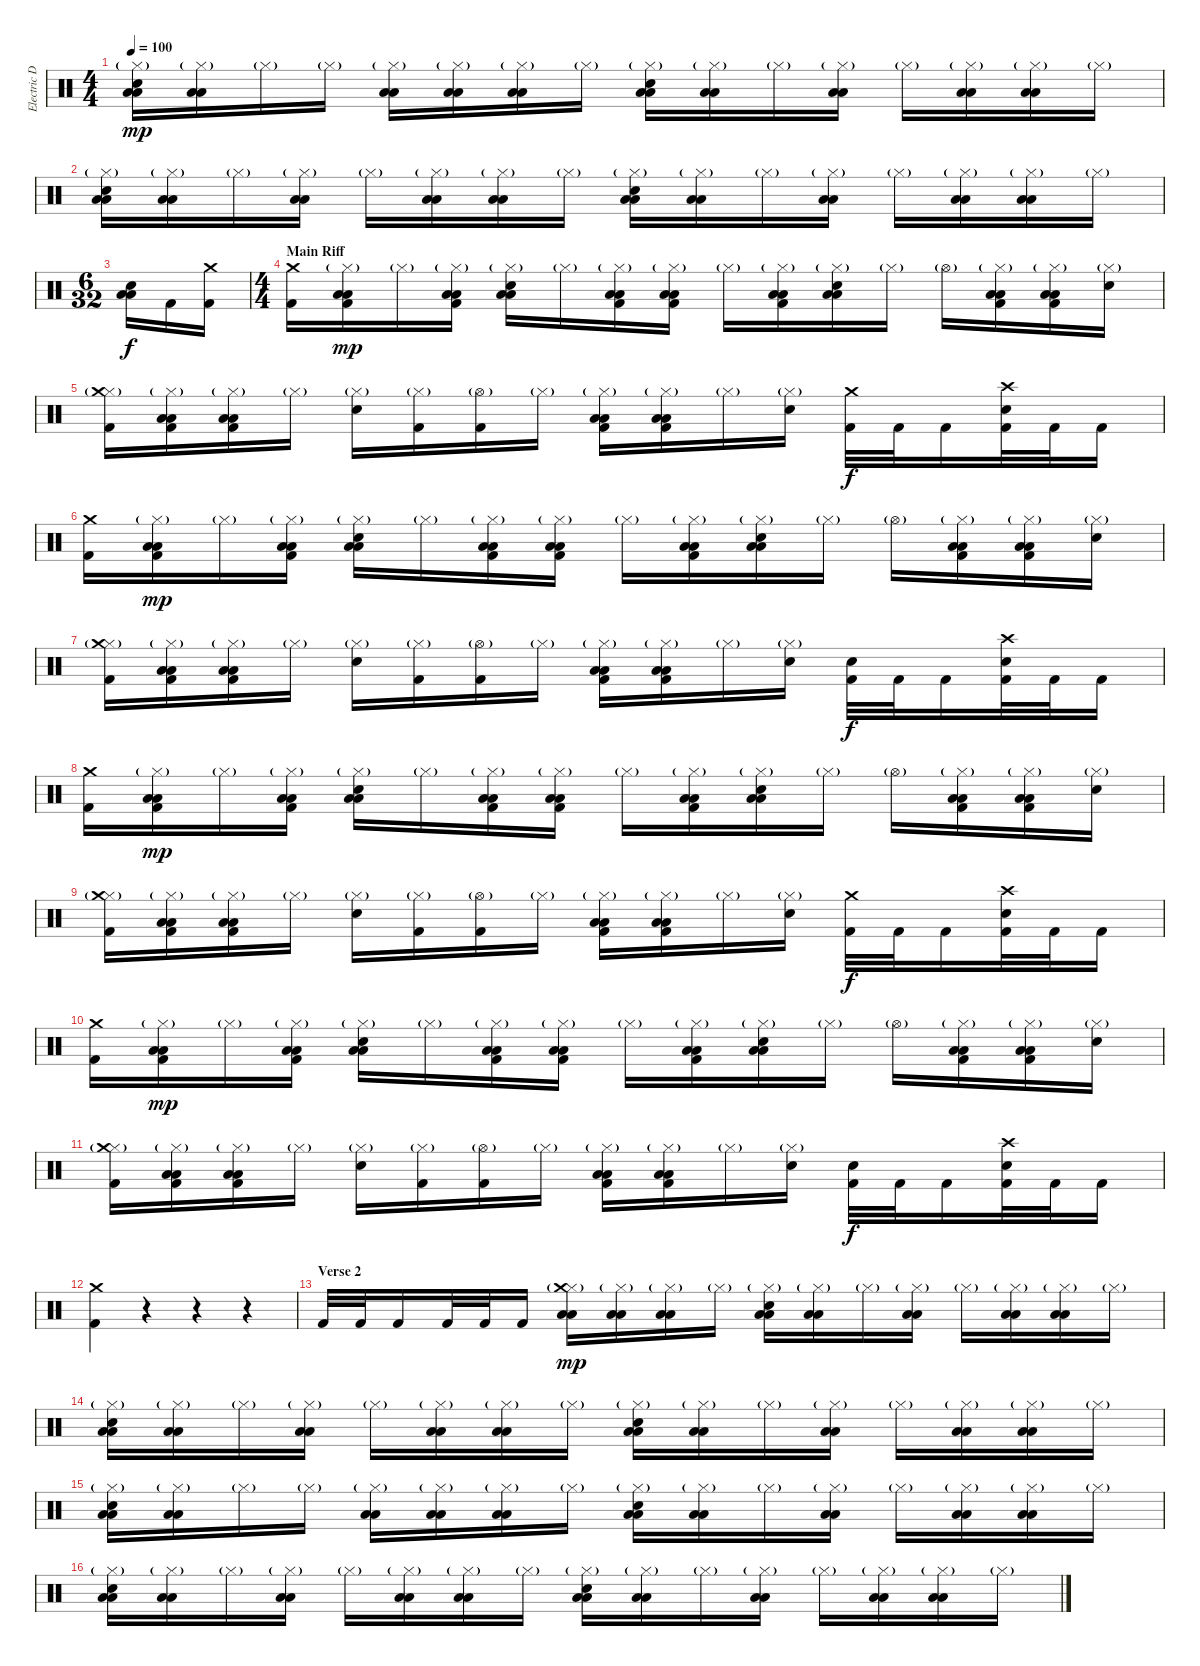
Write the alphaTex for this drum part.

\track ("Electric Drums" "Electric D") {instrument percussion}
\staff {score}
\articulation defaults
\ts (4 4)
\tempo 100
\clef neutral
\ks c
("Hi-Hat (closed)"{g} "Snare (hit) 2" "Low Floor Tom (hit)" "Low Tom (hit)").16{dy mp} ("Hi-Hat (closed)"{g} "Low Floor Tom (hit)" "Low Tom (hit)").16 "Hi-Hat (closed)"{g}.16 "Hi-Hat (closed)"{g}.16 ("Hi-Hat (closed)"{g} "Low Floor Tom (hit)" "Low Tom (hit)").16 ("Hi-Hat (closed)"{g} "Low Floor Tom (hit)" "Low Tom (hit)").16 ("Hi-Hat (closed)"{g} "Low Floor Tom (hit)" "Low Tom (hit)").16 "Hi-Hat (closed)"{g}.16 ("Hi-Hat (closed)"{g} "Snare (hit) 2" "Low Floor Tom (hit)" "Low Tom (hit)").16 ("Hi-Hat (closed)"{g} "Low Floor Tom (hit)" "Low Tom (hit)").16 "Hi-Hat (closed)"{g}.16 ("Hi-Hat (closed)"{g} "Low Floor Tom (hit)" "Low Tom (hit)").16 "Hi-Hat (closed)"{g}.16 ("Hi-Hat (closed)"{g} "Low Floor Tom (hit)" "Low Tom (hit)").16 ("Hi-Hat (closed)"{g} "Low Floor Tom (hit)" "Low Tom (hit)").16 "Hi-Hat (closed)"{g}.16 |
("Hi-Hat (closed)"{g} "Snare (hit) 2" "Low Floor Tom (hit)" "Low Tom (hit)").16 ("Hi-Hat (closed)"{g} "Low Floor Tom (hit)" "Low Tom (hit)").16 "Hi-Hat (closed)"{g}.16 ("Hi-Hat (closed)"{g} "Low Floor Tom (hit)" "Low Tom (hit)").16 "Hi-Hat (closed)"{g}.16 ("Hi-Hat (closed)"{g} "Low Floor Tom (hit)" "Low Tom (hit)").16 ("Hi-Hat (closed)"{g} "Low Floor Tom (hit)" "Low Tom (hit)").16 "Hi-Hat (closed)"{g}.16 ("Hi-Hat (closed)"{g} "Snare (hit) 2" "Low Floor Tom (hit)" "Low Tom (hit)").16 ("Hi-Hat (closed)"{g} "Low Floor Tom (hit)" "Low Tom (hit)").16 "Hi-Hat (closed)"{g}.16 ("Hi-Hat (closed)"{g} "Low Floor Tom (hit)" "Low Tom (hit)").16 "Hi-Hat (closed)"{g}.16 ("Hi-Hat (closed)"{g} "Low Floor Tom (hit)" "Low Tom (hit)").16 ("Hi-Hat (closed)"{g} "Low Floor Tom (hit)" "Low Tom (hit)").16 "Hi-Hat (closed)"{g}.16 |
\ts (6 32)
("Snare (hit) 2" "Low Floor Tom (hit)" "Low Tom (hit)").16{dy f} "Kick (hit) 2".16 ("Kick (hit) 2" "Crash medium (hit)").16 |
\ts (4 4)
\section ("" "Main Riff")
("Kick (hit) 2" "Crash medium (hit)").16 ("Hi-Hat (closed)"{g} "Kick (hit) 2" "Low Tom (hit)" "Low Floor Tom (hit)").16{dy mp} "Hi-Hat (closed)"{g}.16 ("Hi-Hat (closed)"{g} "Kick (hit) 2" "Low Tom (hit)" "Low Floor Tom (hit)").16 ("Hi-Hat (closed)"{g} "Snare (hit) 2" "Low Tom (hit)" "Low Floor Tom (hit)").16 "Hi-Hat (closed)"{g}.16 ("Hi-Hat (closed)"{g} "Kick (hit) 2" "Low Floor Tom (hit)" "Low Tom (hit)").16 ("Hi-Hat (closed)"{g} "Kick (hit) 2" "Low Floor Tom (hit)" "Low Tom (hit)").16 "Hi-Hat (closed)"{g}.16 ("Hi-Hat (closed)"{g} "Kick (hit) 2" "Low Floor Tom (hit)" "Low Tom (hit)").16 ("Hi-Hat (closed)"{g} "Snare (hit) 2" "Low Floor Tom (hit)" "Low Tom (hit)").16 "Hi-Hat (closed)"{g}.16 "Hi-Hat (open)"{g}.16 ("Hi-Hat (closed)"{g} "Kick (hit) 2" "Low Tom (hit)" "Low Floor Tom (hit)").16 ("Hi-Hat (closed)"{g} "Kick (hit) 2" "Low Tom (hit)" "Low Floor Tom (hit)").16 ("Hi-Hat (closed)"{g} "Snare (hit) 2").16 |
("Hi-Hat (closed)"{g} "Crash medium (hit)" "Kick (hit) 2").16 ("Hi-Hat (closed)"{g} "Low Tom (hit)" "Low Floor Tom (hit)" "Kick (hit) 2").16 ("Hi-Hat (closed)"{g} "Kick (hit) 2" "Low Floor Tom (hit)" "Low Tom (hit)").16 "Hi-Hat (closed)"{g}.16 ("Hi-Hat (closed)"{g} "Snare (hit) 2").16 ("Hi-Hat (closed)"{g} "Kick (hit) 2").16 ("Hi-Hat (open)"{g} "Kick (hit) 2").16 "Hi-Hat (closed)"{g}.16 ("Hi-Hat (closed)"{g} "Low Tom (hit)" "Low Floor Tom (hit)" "Kick (hit) 2").16 ("Hi-Hat (closed)"{g} "Low Tom (hit)" "Low Floor Tom (hit)" "Kick (hit) 2").16 "Hi-Hat (closed)"{g}.16 ("Hi-Hat (closed)"{g} "Snare (hit) 2").16 ("Crash medium (hit)" "Kick (hit) 2").32{dy f} "Kick (hit) 2".32 "Kick (hit) 2".16 ("Crash high (hit)" "Snare (hit) 2" "Kick (hit) 2").32 "Kick (hit) 2".32 "Kick (hit) 2".16 |
("Kick (hit) 2" "Crash medium (hit)").16 ("Hi-Hat (closed)"{g} "Kick (hit) 2" "Low Tom (hit)" "Low Floor Tom (hit)").16{dy mp} "Hi-Hat (closed)"{g}.16 ("Hi-Hat (closed)"{g} "Kick (hit) 2" "Low Tom (hit)" "Low Floor Tom (hit)").16 ("Hi-Hat (closed)"{g} "Snare (hit) 2" "Low Tom (hit)" "Low Floor Tom (hit)").16 "Hi-Hat (closed)"{g}.16 ("Hi-Hat (closed)"{g} "Kick (hit) 2" "Low Floor Tom (hit)" "Low Tom (hit)").16 ("Hi-Hat (closed)"{g} "Kick (hit) 2" "Low Floor Tom (hit)" "Low Tom (hit)").16 "Hi-Hat (closed)"{g}.16 ("Hi-Hat (closed)"{g} "Kick (hit) 2" "Low Floor Tom (hit)" "Low Tom (hit)").16 ("Hi-Hat (closed)"{g} "Snare (hit) 2" "Low Floor Tom (hit)" "Low Tom (hit)").16 "Hi-Hat (closed)"{g}.16 "Hi-Hat (open)"{g}.16 ("Hi-Hat (closed)"{g} "Kick (hit) 2" "Low Tom (hit)" "Low Floor Tom (hit)").16 ("Hi-Hat (closed)"{g} "Kick (hit) 2" "Low Tom (hit)" "Low Floor Tom (hit)").16 ("Hi-Hat (closed)"{g} "Snare (hit) 2").16 |
("Hi-Hat (closed)"{g} "Crash medium (hit)" "Kick (hit) 2").16 ("Hi-Hat (closed)"{g} "Low Tom (hit)" "Low Floor Tom (hit)" "Kick (hit) 2").16 ("Hi-Hat (closed)"{g} "Kick (hit) 2" "Low Floor Tom (hit)" "Low Tom (hit)").16 "Hi-Hat (closed)"{g}.16 ("Hi-Hat (closed)"{g} "Snare (hit) 2").16 ("Hi-Hat (closed)"{g} "Kick (hit) 2").16 ("Hi-Hat (open)"{g} "Kick (hit) 2").16 "Hi-Hat (closed)"{g}.16 ("Hi-Hat (closed)"{g} "Low Tom (hit)" "Low Floor Tom (hit)" "Kick (hit) 2").16 ("Hi-Hat (closed)"{g} "Low Tom (hit)" "Low Floor Tom (hit)" "Kick (hit) 2").16 "Hi-Hat (closed)"{g}.16 ("Hi-Hat (closed)"{g} "Snare (hit) 2").16 ("Snare (hit) 2" "Kick (hit) 2").32{dy f} "Kick (hit) 2".32 "Kick (hit) 2".16 ("Crash high (hit)" "Snare (hit) 2" "Kick (hit) 2").32 "Kick (hit) 2".32 "Kick (hit) 2".16 |
("Kick (hit) 2" "Crash medium (hit)").16 ("Hi-Hat (closed)"{g} "Kick (hit) 2" "Low Tom (hit)" "Low Floor Tom (hit)").16{dy mp} "Hi-Hat (closed)"{g}.16 ("Hi-Hat (closed)"{g} "Kick (hit) 2" "Low Tom (hit)" "Low Floor Tom (hit)").16 ("Hi-Hat (closed)"{g} "Snare (hit) 2" "Low Tom (hit)" "Low Floor Tom (hit)").16 "Hi-Hat (closed)"{g}.16 ("Hi-Hat (closed)"{g} "Kick (hit) 2" "Low Floor Tom (hit)" "Low Tom (hit)").16 ("Hi-Hat (closed)"{g} "Kick (hit) 2" "Low Floor Tom (hit)" "Low Tom (hit)").16 "Hi-Hat (closed)"{g}.16 ("Hi-Hat (closed)"{g} "Kick (hit) 2" "Low Floor Tom (hit)" "Low Tom (hit)").16 ("Hi-Hat (closed)"{g} "Snare (hit) 2" "Low Floor Tom (hit)" "Low Tom (hit)").16 "Hi-Hat (closed)"{g}.16 "Hi-Hat (open)"{g}.16 ("Hi-Hat (closed)"{g} "Kick (hit) 2" "Low Tom (hit)" "Low Floor Tom (hit)").16 ("Hi-Hat (closed)"{g} "Kick (hit) 2" "Low Tom (hit)" "Low Floor Tom (hit)").16 ("Hi-Hat (closed)"{g} "Snare (hit) 2").16 |
("Hi-Hat (closed)"{g} "Crash medium (hit)" "Kick (hit) 2").16 ("Hi-Hat (closed)"{g} "Low Tom (hit)" "Low Floor Tom (hit)" "Kick (hit) 2").16 ("Hi-Hat (closed)"{g} "Kick (hit) 2" "Low Floor Tom (hit)" "Low Tom (hit)").16 "Hi-Hat (closed)"{g}.16 ("Hi-Hat (closed)"{g} "Snare (hit) 2").16 ("Hi-Hat (closed)"{g} "Kick (hit) 2").16 ("Hi-Hat (open)"{g} "Kick (hit) 2").16 "Hi-Hat (closed)"{g}.16 ("Hi-Hat (closed)"{g} "Low Tom (hit)" "Low Floor Tom (hit)" "Kick (hit) 2").16 ("Hi-Hat (closed)"{g} "Low Tom (hit)" "Low Floor Tom (hit)" "Kick (hit) 2").16 "Hi-Hat (closed)"{g}.16 ("Hi-Hat (closed)"{g} "Snare (hit) 2").16 ("Crash medium (hit)" "Kick (hit) 2").32{dy f} "Kick (hit) 2".32 "Kick (hit) 2".16 ("Crash high (hit)" "Snare (hit) 2" "Kick (hit) 2").32 "Kick (hit) 2".32 "Kick (hit) 2".16 |
("Kick (hit) 2" "Crash medium (hit)").16 ("Hi-Hat (closed)"{g} "Kick (hit) 2" "Low Tom (hit)" "Low Floor Tom (hit)").16{dy mp} "Hi-Hat (closed)"{g}.16 ("Hi-Hat (closed)"{g} "Kick (hit) 2" "Low Tom (hit)" "Low Floor Tom (hit)").16 ("Hi-Hat (closed)"{g} "Snare (hit) 2" "Low Tom (hit)" "Low Floor Tom (hit)").16 "Hi-Hat (closed)"{g}.16 ("Hi-Hat (closed)"{g} "Kick (hit) 2" "Low Floor Tom (hit)" "Low Tom (hit)").16 ("Hi-Hat (closed)"{g} "Kick (hit) 2" "Low Floor Tom (hit)" "Low Tom (hit)").16 "Hi-Hat (closed)"{g}.16 ("Hi-Hat (closed)"{g} "Kick (hit) 2" "Low Floor Tom (hit)" "Low Tom (hit)").16 ("Hi-Hat (closed)"{g} "Snare (hit) 2" "Low Floor Tom (hit)" "Low Tom (hit)").16 "Hi-Hat (closed)"{g}.16 "Hi-Hat (open)"{g}.16 ("Hi-Hat (closed)"{g} "Kick (hit) 2" "Low Tom (hit)" "Low Floor Tom (hit)").16 ("Hi-Hat (closed)"{g} "Kick (hit) 2" "Low Tom (hit)" "Low Floor Tom (hit)").16 ("Hi-Hat (closed)"{g} "Snare (hit) 2").16 |
("Hi-Hat (closed)"{g} "Crash medium (hit)" "Kick (hit) 2").16 ("Hi-Hat (closed)"{g} "Low Tom (hit)" "Low Floor Tom (hit)" "Kick (hit) 2").16 ("Hi-Hat (closed)"{g} "Kick (hit) 2" "Low Floor Tom (hit)" "Low Tom (hit)").16 "Hi-Hat (closed)"{g}.16 ("Hi-Hat (closed)"{g} "Snare (hit) 2").16 ("Hi-Hat (closed)"{g} "Kick (hit) 2").16 ("Hi-Hat (open)"{g} "Kick (hit) 2").16 "Hi-Hat (closed)"{g}.16 ("Hi-Hat (closed)"{g} "Low Tom (hit)" "Low Floor Tom (hit)" "Kick (hit) 2").16 ("Hi-Hat (closed)"{g} "Low Tom (hit)" "Low Floor Tom (hit)" "Kick (hit) 2").16 "Hi-Hat (closed)"{g}.16 ("Hi-Hat (closed)"{g} "Snare (hit) 2").16 ("Snare (hit) 2" "Kick (hit) 2").32{dy f} "Kick (hit) 2".32 "Kick (hit) 2".16 ("Crash high (hit)" "Snare (hit) 2" "Kick (hit) 2").32 "Kick (hit) 2".32 "Kick (hit) 2".16 |
("Crash medium (hit)" "Kick (hit) 2").4{volume 0} r.4 r.4 r.4{volume 13} |
\section ("" "Verse 2")
"Kick (hit) 2".32 "Kick (hit) 2".32 "Kick (hit) 2".16 "Kick (hit) 2".32 "Kick (hit) 2".32 "Kick (hit) 2".16 ("Hi-Hat (closed)"{g} "Crash medium (hit)" "Low Floor Tom (hit)" "Low Tom (hit)").16{dy mp} ("Hi-Hat (closed)"{g} "Low Floor Tom (hit)" "Low Tom (hit)").16 ("Hi-Hat (closed)"{g} "Low Floor Tom (hit)" "Low Tom (hit)").16 "Hi-Hat (closed)"{g}.16 ("Hi-Hat (closed)"{g} "Snare (hit) 2" "Low Floor Tom (hit)" "Low Tom (hit)").16 ("Hi-Hat (closed)"{g} "Low Floor Tom (hit)" "Low Tom (hit)").16 "Hi-Hat (closed)"{g}.16 ("Hi-Hat (closed)"{g} "Low Floor Tom (hit)" "Low Tom (hit)").16 "Hi-Hat (closed)"{g}.16 ("Hi-Hat (closed)"{g} "Low Floor Tom (hit)" "Low Tom (hit)").16 ("Hi-Hat (closed)"{g} "Low Floor Tom (hit)" "Low Tom (hit)").16 "Hi-Hat (closed)"{g}.16 |
("Hi-Hat (closed)"{g} "Snare (hit) 2" "Low Floor Tom (hit)" "Low Tom (hit)").16 ("Hi-Hat (closed)"{g} "Low Floor Tom (hit)" "Low Tom (hit)").16 "Hi-Hat (closed)"{g}.16 ("Hi-Hat (closed)"{g} "Low Floor Tom (hit)" "Low Tom (hit)").16 "Hi-Hat (closed)"{g}.16 ("Hi-Hat (closed)"{g} "Low Floor Tom (hit)" "Low Tom (hit)").16 ("Hi-Hat (closed)"{g} "Low Floor Tom (hit)" "Low Tom (hit)").16 "Hi-Hat (closed)"{g}.16 ("Hi-Hat (closed)"{g} "Snare (hit) 2" "Low Floor Tom (hit)" "Low Tom (hit)").16 ("Hi-Hat (closed)"{g} "Low Floor Tom (hit)" "Low Tom (hit)").16 "Hi-Hat (closed)"{g}.16 ("Hi-Hat (closed)"{g} "Low Floor Tom (hit)" "Low Tom (hit)").16 "Hi-Hat (closed)"{g}.16 ("Hi-Hat (closed)"{g} "Low Floor Tom (hit)" "Low Tom (hit)").16 ("Hi-Hat (closed)"{g} "Low Floor Tom (hit)" "Low Tom (hit)").16 "Hi-Hat (closed)"{g}.16 |
("Hi-Hat (closed)"{g} "Snare (hit) 2" "Low Floor Tom (hit)" "Low Tom (hit)").16 ("Hi-Hat (closed)"{g} "Low Floor Tom (hit)" "Low Tom (hit)").16 "Hi-Hat (closed)"{g}.16 "Hi-Hat (closed)"{g}.16 ("Hi-Hat (closed)"{g} "Low Floor Tom (hit)" "Low Tom (hit)").16 ("Hi-Hat (closed)"{g} "Low Floor Tom (hit)" "Low Tom (hit)").16 ("Hi-Hat (closed)"{g} "Low Floor Tom (hit)" "Low Tom (hit)").16 "Hi-Hat (closed)"{g}.16 ("Hi-Hat (closed)"{g} "Snare (hit) 2" "Low Floor Tom (hit)" "Low Tom (hit)").16 ("Hi-Hat (closed)"{g} "Low Floor Tom (hit)" "Low Tom (hit)").16 "Hi-Hat (closed)"{g}.16 ("Hi-Hat (closed)"{g} "Low Floor Tom (hit)" "Low Tom (hit)").16 "Hi-Hat (closed)"{g}.16 ("Hi-Hat (closed)"{g} "Low Floor Tom (hit)" "Low Tom (hit)").16 ("Hi-Hat (closed)"{g} "Low Floor Tom (hit)" "Low Tom (hit)").16 "Hi-Hat (closed)"{g}.16 |
("Hi-Hat (closed)"{g} "Snare (hit) 2" "Low Floor Tom (hit)" "Low Tom (hit)").16 ("Hi-Hat (closed)"{g} "Low Floor Tom (hit)" "Low Tom (hit)").16 "Hi-Hat (closed)"{g}.16 ("Hi-Hat (closed)"{g} "Low Floor Tom (hit)" "Low Tom (hit)").16 "Hi-Hat (closed)"{g}.16 ("Hi-Hat (closed)"{g} "Low Floor Tom (hit)" "Low Tom (hit)").16 ("Hi-Hat (closed)"{g} "Low Floor Tom (hit)" "Low Tom (hit)").16 "Hi-Hat (closed)"{g}.16 ("Hi-Hat (closed)"{g} "Snare (hit) 2" "Low Floor Tom (hit)" "Low Tom (hit)").16 ("Hi-Hat (closed)"{g} "Low Floor Tom (hit)" "Low Tom (hit)").16 "Hi-Hat (closed)"{g}.16 ("Hi-Hat (closed)"{g} "Low Floor Tom (hit)" "Low Tom (hit)").16 "Hi-Hat (closed)"{g}.16 ("Hi-Hat (closed)"{g} "Low Floor Tom (hit)" "Low Tom (hit)").16 ("Hi-Hat (closed)"{g} "Low Floor Tom (hit)" "Low Tom (hit)").16 "Hi-Hat (closed)"{g}.16
